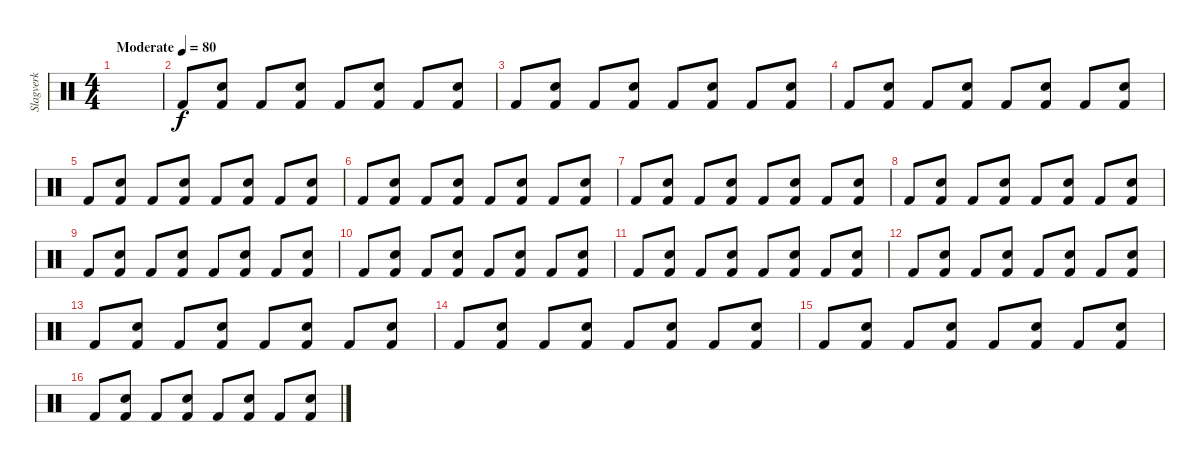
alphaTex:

\track ("Slagverk" "Slagverk") {instrument percussion}
\staff {score}
\articulation defaults
\ts (4 4)
\tempo (80 "Moderate")
\clef neutral
\ks c
|
"Kick (hit) 2".8 ("Electric Snare (hit)" "Kick (hit) 2").8 "Kick (hit) 2".8 ("Electric Snare (hit)" "Kick (hit) 2").8 "Kick (hit) 2".8 ("Electric Snare (hit)" "Kick (hit) 2").8 "Kick (hit) 2".8 ("Electric Snare (hit)" "Kick (hit) 2").8 |
"Kick (hit) 2".8 ("Electric Snare (hit)" "Kick (hit) 2").8 "Kick (hit) 2".8 ("Electric Snare (hit)" "Kick (hit) 2").8 "Kick (hit) 2".8 ("Electric Snare (hit)" "Kick (hit) 2").8 "Kick (hit) 2".8 ("Electric Snare (hit)" "Kick (hit) 2").8 |
"Kick (hit) 2".8 ("Electric Snare (hit)" "Kick (hit) 2").8 "Kick (hit) 2".8 ("Electric Snare (hit)" "Kick (hit) 2").8 "Kick (hit) 2".8 ("Electric Snare (hit)" "Kick (hit) 2").8 "Kick (hit) 2".8 ("Electric Snare (hit)" "Kick (hit) 2").8 |
"Kick (hit) 2".8 ("Electric Snare (hit)" "Kick (hit) 2").8 "Kick (hit) 2".8 ("Electric Snare (hit)" "Kick (hit) 2").8 "Kick (hit) 2".8 ("Electric Snare (hit)" "Kick (hit) 2").8 "Kick (hit) 2".8 ("Electric Snare (hit)" "Kick (hit) 2").8 |
"Kick (hit) 2".8 ("Electric Snare (hit)" "Kick (hit) 2").8 "Kick (hit) 2".8 ("Electric Snare (hit)" "Kick (hit) 2").8 "Kick (hit) 2".8 ("Electric Snare (hit)" "Kick (hit) 2").8 "Kick (hit) 2".8 ("Electric Snare (hit)" "Kick (hit) 2").8 |
"Kick (hit) 2".8 ("Electric Snare (hit)" "Kick (hit) 2").8 "Kick (hit) 2".8 ("Electric Snare (hit)" "Kick (hit) 2").8 "Kick (hit) 2".8 ("Electric Snare (hit)" "Kick (hit) 2").8 "Kick (hit) 2".8 ("Electric Snare (hit)" "Kick (hit) 2").8 |
"Kick (hit) 2".8 ("Electric Snare (hit)" "Kick (hit) 2").8 "Kick (hit) 2".8 ("Electric Snare (hit)" "Kick (hit) 2").8 "Kick (hit) 2".8 ("Electric Snare (hit)" "Kick (hit) 2").8 "Kick (hit) 2".8 ("Electric Snare (hit)" "Kick (hit) 2").8 |
"Kick (hit) 2".8 ("Electric Snare (hit)" "Kick (hit) 2").8 "Kick (hit) 2".8 ("Electric Snare (hit)" "Kick (hit) 2").8 "Kick (hit) 2".8 ("Electric Snare (hit)" "Kick (hit) 2").8 "Kick (hit) 2".8 ("Electric Snare (hit)" "Kick (hit) 2").8 |
"Kick (hit) 2".8 ("Electric Snare (hit)" "Kick (hit) 2").8 "Kick (hit) 2".8 ("Electric Snare (hit)" "Kick (hit) 2").8 "Kick (hit) 2".8 ("Electric Snare (hit)" "Kick (hit) 2").8 "Kick (hit) 2".8 ("Electric Snare (hit)" "Kick (hit) 2").8 |
"Kick (hit) 2".8 ("Electric Snare (hit)" "Kick (hit) 2").8 "Kick (hit) 2".8 ("Electric Snare (hit)" "Kick (hit) 2").8 "Kick (hit) 2".8 ("Electric Snare (hit)" "Kick (hit) 2").8 "Kick (hit) 2".8 ("Electric Snare (hit)" "Kick (hit) 2").8 |
"Kick (hit) 2".8 ("Electric Snare (hit)" "Kick (hit) 2").8 "Kick (hit) 2".8 ("Electric Snare (hit)" "Kick (hit) 2").8 "Kick (hit) 2".8 ("Electric Snare (hit)" "Kick (hit) 2").8 "Kick (hit) 2".8 ("Electric Snare (hit)" "Kick (hit) 2").8 |
"Kick (hit) 2".8 ("Electric Snare (hit)" "Kick (hit) 2").8 "Kick (hit) 2".8 ("Electric Snare (hit)" "Kick (hit) 2").8 "Kick (hit) 2".8 ("Electric Snare (hit)" "Kick (hit) 2").8 "Kick (hit) 2".8 ("Electric Snare (hit)" "Kick (hit) 2").8 |
"Kick (hit) 2".8 ("Electric Snare (hit)" "Kick (hit) 2").8 "Kick (hit) 2".8 ("Electric Snare (hit)" "Kick (hit) 2").8 "Kick (hit) 2".8 ("Electric Snare (hit)" "Kick (hit) 2").8 "Kick (hit) 2".8 ("Electric Snare (hit)" "Kick (hit) 2").8 |
"Kick (hit) 2".8 ("Electric Snare (hit)" "Kick (hit) 2").8 "Kick (hit) 2".8 ("Electric Snare (hit)" "Kick (hit) 2").8 "Kick (hit) 2".8 ("Electric Snare (hit)" "Kick (hit) 2").8 "Kick (hit) 2".8 ("Electric Snare (hit)" "Kick (hit) 2").8 |
"Kick (hit) 2".8 ("Electric Snare (hit)" "Kick (hit) 2").8 "Kick (hit) 2".8 ("Electric Snare (hit)" "Kick (hit) 2").8 "Kick (hit) 2".8 ("Electric Snare (hit)" "Kick (hit) 2").8 "Kick (hit) 2".8 ("Electric Snare (hit)" "Kick (hit) 2").8
